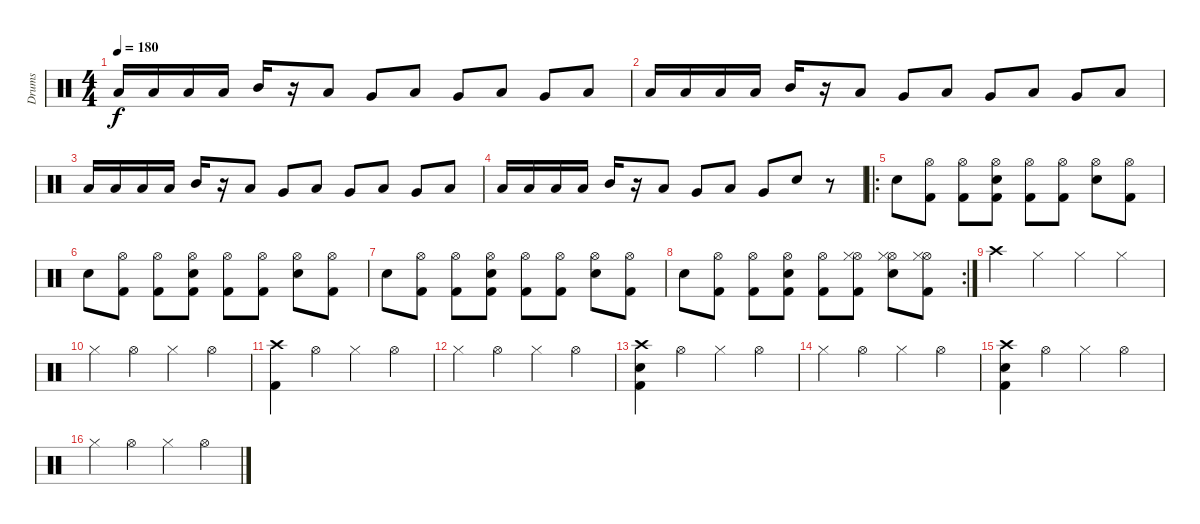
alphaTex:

\track ("Drums" "Drums") {instrument percussion}
\staff {score}
\articulation defaults
\ts (4 4)
\tempo 180
\clef neutral
\ks c "Low Tom (hit)".16{dy f} "Low Tom (hit)".16 "Low Tom (hit)".16 "Low Tom (hit)".16 "Mid Tom (hit)".16
r.16 "Low Tom (hit)".8 "Very Low Tom (hit)".8 "Low Tom (hit)".8 "Very Low Tom (hit)".8 "Low Tom (hit)".8 "Very Low Tom (hit)".8 "Low Tom (hit)".8 |
"Low Tom (hit)".16 "Low Tom (hit)".16 "Low Tom (hit)".16 "Low Tom (hit)".16 "Mid Tom (hit)".16 r.16 "Low Tom (hit)".8 "Very Low Tom (hit)".8 "Low Tom (hit)".8 "Very Low Tom (hit)".8 "Low Tom (hit)".8 "Very Low Tom (hit)".8 "Low Tom (hit)".8 |
"Low Tom (hit)".16 "Low Tom (hit)".16 "Low Tom (hit)".16 "Low Tom (hit)".16 "Mid Tom (hit)".16 r.16 "Low Tom (hit)".8 "Very Low Tom (hit)".8 "Low Tom (hit)".8 "Very Low Tom (hit)".8 "Low Tom (hit)".8 "Very Low Tom (hit)".8 "Low Tom (hit)".8 |
"Low Tom (hit)".16 "Low Tom (hit)".16 "Low Tom (hit)".16 "Low Tom (hit)".16 "Mid Tom (hit)".16 r.16 "Low Tom (hit)".8 "Very Low Tom (hit)".8 "Low Tom (hit)".8 "Very Low Tom (hit)".8 "Electric Snare (hit)".8 r.8 |
\ro "Electric Snare (hit)".8
("Kick (hit) 2" "Hi-Hat (open)").8 ("Kick (hit) 2" "Hi-Hat (open)").8 ("Kick (hit) 2" "Electric Snare (hit)" "Hi-Hat (open)").8 ("Kick (hit) 2" "Hi-Hat (open)").8 ("Kick (hit) 2" "Hi-Hat (open)").8 ("Electric Snare (hit)" "Hi-Hat (open)").8 ("Kick (hit) 2" "Hi-Hat (open)").8 |
"Electric Snare (hit)".8 ("Kick (hit) 2" "Hi-Hat (open)").8 ("Kick (hit) 2" "Hi-Hat (open)").8 ("Kick (hit) 2" "Electric Snare (hit)" "Hi-Hat (open)").8 ("Kick (hit) 2" "Hi-Hat (open)").8 ("Kick (hit) 2" "Hi-Hat (open)").8 ("Electric Snare (hit)" "Hi-Hat (open)").8 ("Kick (hit) 2" "Hi-Hat (open)").8 |
"Electric Snare (hit)".8 ("Kick (hit) 2" "Hi-Hat (open)").8 ("Kick (hit) 2" "Hi-Hat (open)").8 ("Kick (hit) 2" "Electric Snare (hit)" "Hi-Hat (open)").8 ("Kick (hit) 2" "Hi-Hat (open)").8 ("Kick (hit) 2" "Hi-Hat (open)").8 ("Electric Snare (hit)" "Hi-Hat (open)").8 ("Kick (hit) 2" "Hi-Hat (open)").8 |
\rc 2 "Electric Snare (hit)".8
("Kick (hit) 2" "Hi-Hat (open)").8 ("Kick (hit) 2" "Hi-Hat (open)").8 ("Kick (hit) 2" "Electric Snare (hit)" "Hi-Hat (open)").8 ("Kick (hit) 2" "Hi-Hat (open)").8 ("Kick (hit) 2" "Hi-Hat (open)" "Hi-Hat (closed)").8 ("Electric Snare (hit)" "Hi-Hat (open)" "Hi-Hat (closed)").8 ("Kick (hit) 2" "Hi-Hat (open)" "Hi-Hat (closed)").8 |
"Crash high (hit)".4 "Hi-Hat (closed)".4 "Hi-Hat (closed)".4 "Hi-Hat (closed)".4 |
"Hi-Hat (closed)".4 "Hi-Hat (open)".4 "Hi-Hat (closed)".4 "Hi-Hat (open)".4 |
("Kick (hit) 2" "Crash high (hit)").4 "Hi-Hat (open)".4 "Hi-Hat (closed)".4 "Hi-Hat (open)".4 |
"Hi-Hat (closed)".4 "Hi-Hat (open)".4 "Hi-Hat (closed)".4 "Hi-Hat (open)".4 |
("Kick (hit) 2" "Electric Snare (hit)" "Crash high (hit)").4 "Hi-Hat (open)".4 "Hi-Hat (closed)".4 "Hi-Hat (open)".4 |
"Hi-Hat (closed)".4 "Hi-Hat (open)".4 "Hi-Hat (closed)".4 "Hi-Hat (open)".4 |
("Kick (hit) 2" "Electric Snare (hit)" "Crash high (hit)").4 "Hi-Hat (open)".4 "Hi-Hat (closed)".4 "Hi-Hat (open)".4 |
"Hi-Hat (closed)".4 "Hi-Hat (open)".4 "Hi-Hat (closed)".4 "Hi-Hat (open)".4
